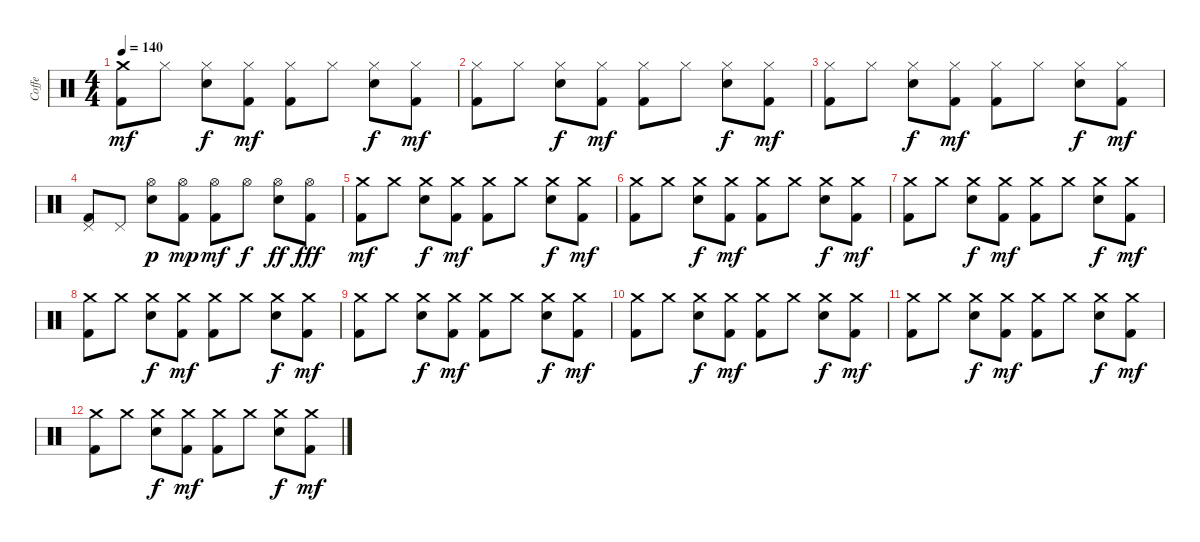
\track ("Coffe" "Coffe") {instrument percussion}
\staff {score}
\articulation defaults
\ts (4 4)
\tempo 140
\clef neutral
\ks c
("Crash medium (hit)" "Kick (hit) 2").8{dy mf} "Hi-Hat (closed)".8 ("Hi-Hat (closed)" "Snare (hit) 2").8{dy f} ("Hi-Hat (closed)" "Kick (hit) 2").8{dy mf} ("Hi-Hat (closed)" "Kick (hit) 2").8 "Hi-Hat (closed)".8 ("Hi-Hat (closed)" "Snare (hit) 2").8{dy f} ("Hi-Hat (closed)" "Kick (hit) 2").8{dy mf} |
("Hi-Hat (closed)" "Kick (hit) 2").8 "Hi-Hat (closed)".8 ("Hi-Hat (closed)" "Snare (hit) 2").8{dy f} ("Hi-Hat (closed)" "Kick (hit) 2").8{dy mf} ("Hi-Hat (closed)" "Kick (hit) 2").8 "Hi-Hat (closed)".8 ("Hi-Hat (closed)" "Snare (hit) 2").8{dy f} ("Hi-Hat (closed)" "Kick (hit) 2").8{dy mf} |
("Hi-Hat (closed)" "Kick (hit) 2").8 "Hi-Hat (closed)".8 ("Hi-Hat (closed)" "Snare (hit) 2").8{dy f} ("Hi-Hat (closed)" "Kick (hit) 2").8{dy mf} ("Hi-Hat (closed)" "Kick (hit) 2").8 "Hi-Hat (closed)".8 ("Hi-Hat (closed)" "Snare (hit) 2").8{dy f} ("Hi-Hat (closed)" "Kick (hit) 2").8{dy mf} |
("Pedal Hi-Hat (hit)" "Kick (hit) 2").8 "Pedal Hi-Hat (hit)".8 ("Hi-Hat (open)" "Snare (hit) 2").8{dy p} ("Hi-Hat (open)" "Kick (hit) 2").8{dy mp} ("Hi-Hat (open)" "Kick (hit) 2").8{dy mf} "Hi-Hat (open)".8{dy f} ("Hi-Hat (open)" "Snare (hit) 2").8{dy ff} ("Hi-Hat (open)" "Kick (hit) 2").8{dy fff} |
("Crash medium (hit)" "Kick (hit) 2").8{dy mf} "Crash medium (hit)".8 ("Crash medium (hit)" "Snare (hit) 2").8{dy f} ("Crash medium (hit)" "Kick (hit) 2").8{dy mf} ("Crash medium (hit)" "Kick (hit) 2").8 "Crash medium (hit)".8 ("Crash medium (hit)" "Snare (hit) 2").8{dy f} ("Crash medium (hit)" "Kick (hit) 2").8{dy mf} |
("Crash medium (hit)" "Kick (hit) 2").8 "Crash medium (hit)".8 ("Crash medium (hit)" "Snare (hit) 2").8{dy f} ("Crash medium (hit)" "Kick (hit) 2").8{dy mf} ("Crash medium (hit)" "Kick (hit) 2").8 "Crash medium (hit)".8 ("Crash medium (hit)" "Snare (hit) 2").8{dy f} ("Crash medium (hit)" "Kick (hit) 2").8{dy mf} |
("Crash medium (hit)" "Kick (hit) 2").8 "Crash medium (hit)".8 ("Crash medium (hit)" "Snare (hit) 2").8{dy f} ("Crash medium (hit)" "Kick (hit) 2").8{dy mf} ("Crash medium (hit)" "Kick (hit) 2").8 "Crash medium (hit)".8 ("Crash medium (hit)" "Snare (hit) 2").8{dy f} ("Crash medium (hit)" "Kick (hit) 2").8{dy mf} |
("Crash medium (hit)" "Kick (hit) 2").8 "Crash medium (hit)".8 ("Crash medium (hit)" "Snare (hit) 2").8{dy f} ("Crash medium (hit)" "Kick (hit) 2").8{dy mf} ("Crash medium (hit)" "Kick (hit) 2").8 "Crash medium (hit)".8 ("Crash medium (hit)" "Snare (hit) 2").8{dy f} ("Crash medium (hit)" "Kick (hit) 2").8{dy mf} |
("Crash medium (hit)" "Kick (hit) 2").8 "Crash medium (hit)".8 ("Crash medium (hit)" "Snare (hit) 2").8{dy f} ("Crash medium (hit)" "Kick (hit) 2").8{dy mf} ("Crash medium (hit)" "Kick (hit) 2").8 "Crash medium (hit)".8 ("Crash medium (hit)" "Snare (hit) 2").8{dy f} ("Crash medium (hit)" "Kick (hit) 2").8{dy mf} |
("Crash medium (hit)" "Kick (hit) 2").8 "Crash medium (hit)".8 ("Crash medium (hit)" "Snare (hit) 2").8{dy f} ("Crash medium (hit)" "Kick (hit) 2").8{dy mf} ("Crash medium (hit)" "Kick (hit) 2").8 "Crash medium (hit)".8 ("Crash medium (hit)" "Snare (hit) 2").8{dy f} ("Crash medium (hit)" "Kick (hit) 2").8{dy mf} |
("Crash medium (hit)" "Kick (hit) 2").8 "Crash medium (hit)".8 ("Crash medium (hit)" "Snare (hit) 2").8{dy f} ("Crash medium (hit)" "Kick (hit) 2").8{dy mf} ("Crash medium (hit)" "Kick (hit) 2").8 "Crash medium (hit)".8 ("Crash medium (hit)" "Snare (hit) 2").8{dy f} ("Crash medium (hit)" "Kick (hit) 2").8{dy mf} |
("Crash medium (hit)" "Kick (hit) 2").8 "Crash medium (hit)".8 ("Crash medium (hit)" "Snare (hit) 2").8{dy f} ("Crash medium (hit)" "Kick (hit) 2").8{dy mf} ("Crash medium (hit)" "Kick (hit) 2").8 "Crash medium (hit)".8 ("Crash medium (hit)" "Snare (hit) 2").8{dy f} ("Crash medium (hit)" "Kick (hit) 2").8{dy mf}
